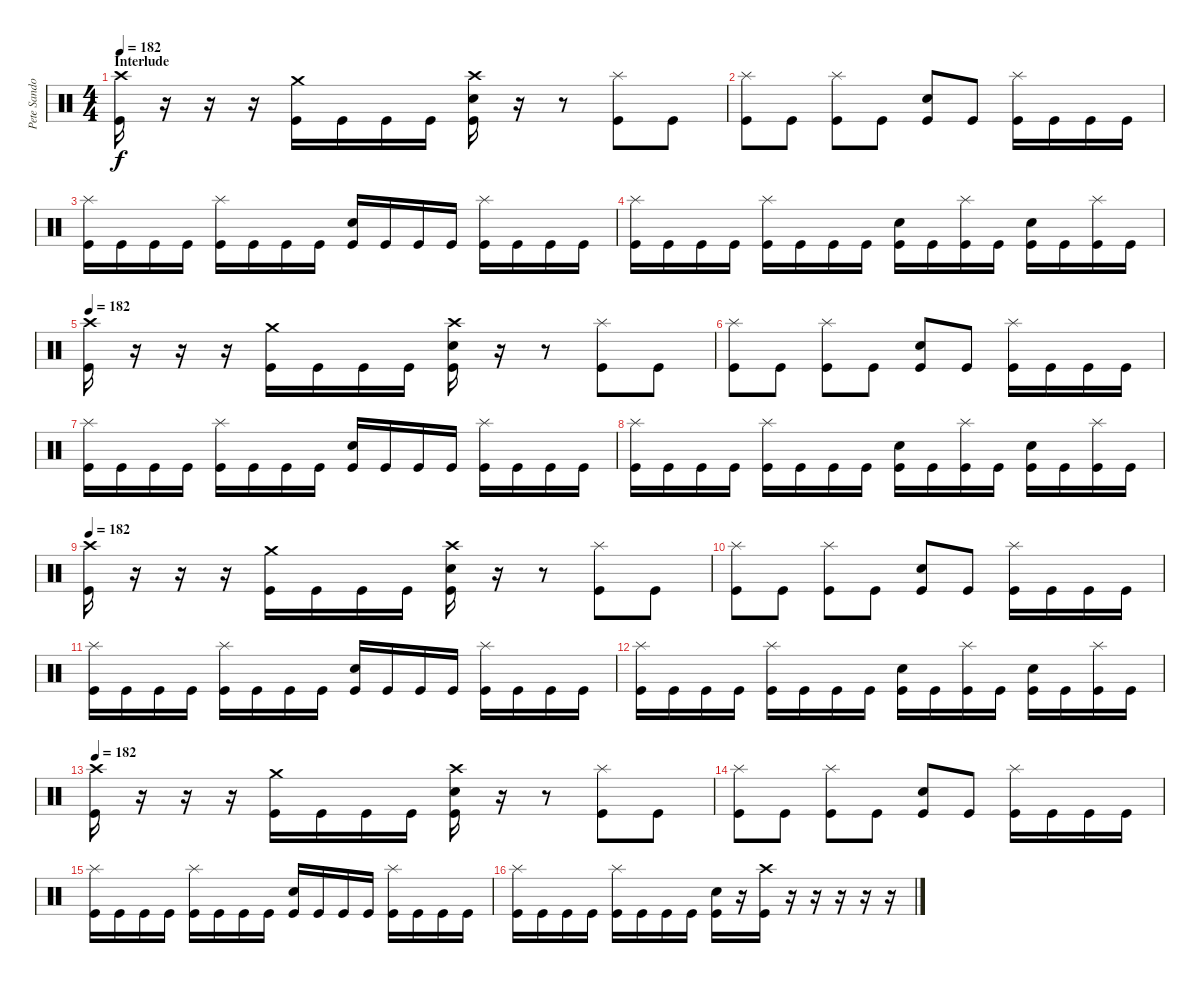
\track ("Pete Sandoval" "Pete Sando") {instrument percussion}
\staff {score}
\articulation defaults
\ts (4 4)
\section ("" "Interlude")
\tempo 182
\clef neutral
\ks c
("Crash high (hit)" "Kick (hit)").16{dy f} r.16 r.16 r.16 ("Crash medium (hit)" "Kick (hit)").16 "Kick (hit)".16 "Kick (hit)".16 "Kick (hit)".16 ("Crash high (hit)" "Electric Snare (hit)" "Kick (hit)").16 r.16 r.8 ("Splash (hit)" "Kick (hit)").8 "Kick (hit)".8 |
("Splash (hit)" "Kick (hit)").8 "Kick (hit)".8 ("Splash (hit)" "Kick (hit)").8 "Kick (hit)".8 ("Electric Snare (hit)" "Kick (hit)").8 "Kick (hit)".8 ("Splash (hit)" "Kick (hit)").16 "Kick (hit)".16 "Kick (hit)".16 "Kick (hit)".16 |
("Splash (hit)" "Kick (hit)").16 "Kick (hit)".16 "Kick (hit)".16 "Kick (hit)".16 ("Splash (hit)" "Kick (hit)").16 "Kick (hit)".16 "Kick (hit)".16 "Kick (hit)".16 ("Electric Snare (hit)" "Kick (hit)").16 "Kick (hit)".16 "Kick (hit)".16 "Kick (hit)".16 ("Splash (hit)" "Kick (hit)").16 "Kick (hit)".16 "Kick (hit)".16 "Kick (hit)".16 |
("Splash (hit)" "Kick (hit)").16 "Kick (hit)".16 "Kick (hit)".16 "Kick (hit)".16 ("Splash (hit)" "Kick (hit)").16 "Kick (hit)".16 "Kick (hit)".16 "Kick (hit)".16 ("Electric Snare (hit)" "Kick (hit)").16 "Kick (hit)".16 ("Splash (hit)" "Kick (hit)").16 "Kick (hit)".16 ("Electric Snare (hit)" "Kick (hit)").16 "Kick (hit)".16 ("Splash (hit)" "Kick (hit)").16 "Kick (hit)".16 |
\tempo 182
("Crash high (hit)" "Kick (hit)").16 r.16 r.16 r.16 ("Crash medium (hit)" "Kick (hit)").16 "Kick (hit)".16 "Kick (hit)".16 "Kick (hit)".16 ("Crash high (hit)" "Electric Snare (hit)" "Kick (hit)").16 r.16 r.8 ("Splash (hit)" "Kick (hit)").8 "Kick (hit)".8 |
("Splash (hit)" "Kick (hit)").8 "Kick (hit)".8 ("Splash (hit)" "Kick (hit)").8 "Kick (hit)".8 ("Electric Snare (hit)" "Kick (hit)").8 "Kick (hit)".8 ("Splash (hit)" "Kick (hit)").16 "Kick (hit)".16 "Kick (hit)".16 "Kick (hit)".16 |
("Splash (hit)" "Kick (hit)").16 "Kick (hit)".16 "Kick (hit)".16 "Kick (hit)".16 ("Splash (hit)" "Kick (hit)").16 "Kick (hit)".16 "Kick (hit)".16 "Kick (hit)".16 ("Electric Snare (hit)" "Kick (hit)").16 "Kick (hit)".16 "Kick (hit)".16 "Kick (hit)".16 ("Splash (hit)" "Kick (hit)").16 "Kick (hit)".16 "Kick (hit)".16 "Kick (hit)".16 |
("Splash (hit)" "Kick (hit)").16 "Kick (hit)".16 "Kick (hit)".16 "Kick (hit)".16 ("Splash (hit)" "Kick (hit)").16 "Kick (hit)".16 "Kick (hit)".16 "Kick (hit)".16 ("Electric Snare (hit)" "Kick (hit)").16 "Kick (hit)".16 ("Splash (hit)" "Kick (hit)").16 "Kick (hit)".16 ("Electric Snare (hit)" "Kick (hit)").16 "Kick (hit)".16 ("Splash (hit)" "Kick (hit)").16 "Kick (hit)".16 |
\tempo 182
("Crash high (hit)" "Kick (hit)").16 r.16 r.16 r.16 ("Crash medium (hit)" "Kick (hit)").16 "Kick (hit)".16 "Kick (hit)".16 "Kick (hit)".16 ("Crash high (hit)" "Electric Snare (hit)" "Kick (hit)").16 r.16 r.8 ("Splash (hit)" "Kick (hit)").8 "Kick (hit)".8 |
("Splash (hit)" "Kick (hit)").8 "Kick (hit)".8 ("Splash (hit)" "Kick (hit)").8 "Kick (hit)".8 ("Electric Snare (hit)" "Kick (hit)").8 "Kick (hit)".8 ("Splash (hit)" "Kick (hit)").16 "Kick (hit)".16 "Kick (hit)".16 "Kick (hit)".16 |
("Splash (hit)" "Kick (hit)").16 "Kick (hit)".16 "Kick (hit)".16 "Kick (hit)".16 ("Splash (hit)" "Kick (hit)").16 "Kick (hit)".16 "Kick (hit)".16 "Kick (hit)".16 ("Electric Snare (hit)" "Kick (hit)").16 "Kick (hit)".16 "Kick (hit)".16 "Kick (hit)".16 ("Splash (hit)" "Kick (hit)").16 "Kick (hit)".16 "Kick (hit)".16 "Kick (hit)".16 |
("Splash (hit)" "Kick (hit)").16 "Kick (hit)".16 "Kick (hit)".16 "Kick (hit)".16 ("Splash (hit)" "Kick (hit)").16 "Kick (hit)".16 "Kick (hit)".16 "Kick (hit)".16 ("Electric Snare (hit)" "Kick (hit)").16 "Kick (hit)".16 ("Splash (hit)" "Kick (hit)").16 "Kick (hit)".16 ("Electric Snare (hit)" "Kick (hit)").16 "Kick (hit)".16 ("Splash (hit)" "Kick (hit)").16 "Kick (hit)".16 |
\tempo 182
("Crash high (hit)" "Kick (hit)").16 r.16 r.16 r.16 ("Crash medium (hit)" "Kick (hit)").16 "Kick (hit)".16 "Kick (hit)".16 "Kick (hit)".16 ("Crash high (hit)" "Electric Snare (hit)" "Kick (hit)").16 r.16 r.8 ("Splash (hit)" "Kick (hit)").8 "Kick (hit)".8 |
("Splash (hit)" "Kick (hit)").8 "Kick (hit)".8 ("Splash (hit)" "Kick (hit)").8 "Kick (hit)".8 ("Electric Snare (hit)" "Kick (hit)").8 "Kick (hit)".8 ("Splash (hit)" "Kick (hit)").16 "Kick (hit)".16 "Kick (hit)".16 "Kick (hit)".16 |
("Splash (hit)" "Kick (hit)").16 "Kick (hit)".16 "Kick (hit)".16 "Kick (hit)".16 ("Splash (hit)" "Kick (hit)").16 "Kick (hit)".16 "Kick (hit)".16 "Kick (hit)".16 ("Electric Snare (hit)" "Kick (hit)").16 "Kick (hit)".16 "Kick (hit)".16 "Kick (hit)".16 ("Splash (hit)" "Kick (hit)").16 "Kick (hit)".16 "Kick (hit)".16 "Kick (hit)".16 |
("Splash (hit)" "Kick (hit)").16 "Kick (hit)".16 "Kick (hit)".16 "Kick (hit)".16 ("Splash (hit)" "Kick (hit)").16 "Kick (hit)".16 "Kick (hit)".16 "Kick (hit)".16 ("Electric Snare (hit)" "Kick (hit)").16 r.16 ("Crash high (hit)" "Kick (hit)").16 r.16 r.16 r.16 r.16 r.16
